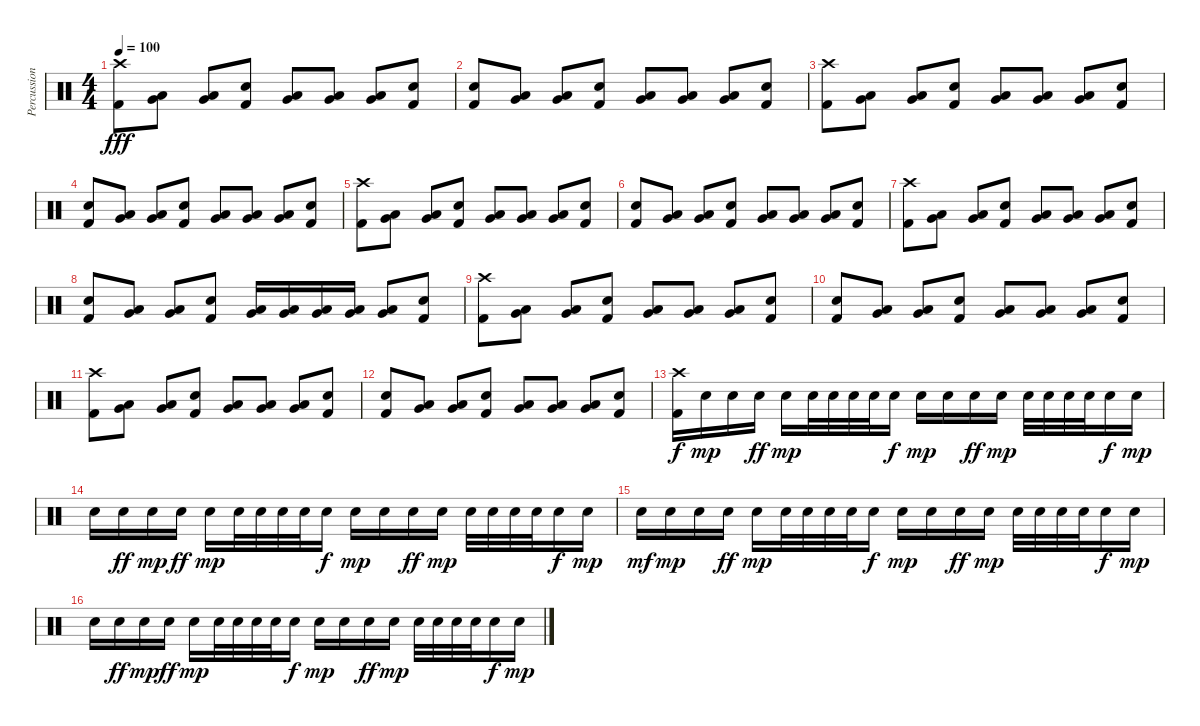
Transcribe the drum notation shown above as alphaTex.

\track ("Percussion" "Percussion") {instrument percussion}
\staff {score}
\articulation defaults
\ts (4 4)
\tempo 100
\clef neutral
\ks c
("Crash high (hit)" "Kick (hit) 2").8{dy fff} ("Very Low Tom (hit)" "Low Tom (hit)").8 ("Very Low Tom (hit)" "Low Tom (hit)").8 ("Kick (hit) 2" "Electric Snare (hit)").8 ("Very Low Tom (hit)" "Low Tom (hit)").8 ("Very Low Tom (hit)" "Low Tom (hit)").8 ("Very Low Tom (hit)" "Low Tom (hit)").8 ("Electric Snare (hit)" "Kick (hit) 2").8 |
("Electric Snare (hit)" "Kick (hit) 2").8 ("Very Low Tom (hit)" "Low Tom (hit)").8 ("Very Low Tom (hit)" "Low Tom (hit)").8 ("Kick (hit) 2" "Electric Snare (hit)").8 ("Very Low Tom (hit)" "Low Tom (hit)").8 ("Very Low Tom (hit)" "Low Tom (hit)").8 ("Very Low Tom (hit)" "Low Tom (hit)").8 ("Kick (hit) 2" "Electric Snare (hit)").8 |
("Crash high (hit)" "Kick (hit) 2").8 ("Very Low Tom (hit)" "Low Tom (hit)").8 ("Very Low Tom (hit)" "Low Tom (hit)").8 ("Kick (hit) 2" "Electric Snare (hit)").8 ("Very Low Tom (hit)" "Low Tom (hit)").8 ("Very Low Tom (hit)" "Low Tom (hit)").8 ("Very Low Tom (hit)" "Low Tom (hit)").8 ("Electric Snare (hit)" "Kick (hit) 2").8 |
("Electric Snare (hit)" "Kick (hit) 2").8 ("Very Low Tom (hit)" "Low Tom (hit)").8 ("Very Low Tom (hit)" "Low Tom (hit)").8 ("Kick (hit) 2" "Electric Snare (hit)").8 ("Very Low Tom (hit)" "Low Tom (hit)").8 ("Very Low Tom (hit)" "Low Tom (hit)").8 ("Very Low Tom (hit)" "Low Tom (hit)").8 ("Kick (hit) 2" "Electric Snare (hit)").8 |
("Crash high (hit)" "Kick (hit) 2").8 ("Very Low Tom (hit)" "Low Tom (hit)").8 ("Very Low Tom (hit)" "Low Tom (hit)").8 ("Kick (hit) 2" "Electric Snare (hit)").8 ("Very Low Tom (hit)" "Low Tom (hit)").8 ("Very Low Tom (hit)" "Low Tom (hit)").8 ("Very Low Tom (hit)" "Low Tom (hit)").8 ("Electric Snare (hit)" "Kick (hit) 2").8 |
("Electric Snare (hit)" "Kick (hit) 2").8 ("Very Low Tom (hit)" "Low Tom (hit)").8 ("Very Low Tom (hit)" "Low Tom (hit)").8 ("Kick (hit) 2" "Electric Snare (hit)").8 ("Very Low Tom (hit)" "Low Tom (hit)").8 ("Very Low Tom (hit)" "Low Tom (hit)").8 ("Very Low Tom (hit)" "Low Tom (hit)").8 ("Kick (hit) 2" "Electric Snare (hit)").8 |
("Crash high (hit)" "Kick (hit) 2").8 ("Very Low Tom (hit)" "Low Tom (hit)").8 ("Very Low Tom (hit)" "Low Tom (hit)").8 ("Kick (hit) 2" "Electric Snare (hit)").8 ("Very Low Tom (hit)" "Low Tom (hit)").8 ("Very Low Tom (hit)" "Low Tom (hit)").8 ("Very Low Tom (hit)" "Low Tom (hit)").8 ("Electric Snare (hit)" "Kick (hit) 2").8 |
("Electric Snare (hit)" "Kick (hit) 2").8 ("Very Low Tom (hit)" "Low Tom (hit)").8 ("Very Low Tom (hit)" "Low Tom (hit)").8 ("Kick (hit) 2" "Electric Snare (hit)").8 ("Very Low Tom (hit)" "Low Tom (hit)").16 ("Very Low Tom (hit)" "Low Tom (hit)").16 ("Very Low Tom (hit)" "Low Tom (hit)").16 ("Very Low Tom (hit)" "Low Tom (hit)").16 ("Very Low Tom (hit)" "Low Tom (hit)").8 ("Kick (hit) 2" "Electric Snare (hit)").8 |
("Crash high (hit)" "Kick (hit) 2").8 ("Very Low Tom (hit)" "Low Tom (hit)").8 ("Very Low Tom (hit)" "Low Tom (hit)").8 ("Kick (hit) 2" "Electric Snare (hit)").8 ("Very Low Tom (hit)" "Low Tom (hit)").8 ("Very Low Tom (hit)" "Low Tom (hit)").8 ("Very Low Tom (hit)" "Low Tom (hit)").8 ("Electric Snare (hit)" "Kick (hit) 2").8 |
("Electric Snare (hit)" "Kick (hit) 2").8 ("Very Low Tom (hit)" "Low Tom (hit)").8 ("Very Low Tom (hit)" "Low Tom (hit)").8 ("Kick (hit) 2" "Electric Snare (hit)").8 ("Very Low Tom (hit)" "Low Tom (hit)").8 ("Very Low Tom (hit)" "Low Tom (hit)").8 ("Very Low Tom (hit)" "Low Tom (hit)").8 ("Kick (hit) 2" "Electric Snare (hit)").8 |
("Crash high (hit)" "Kick (hit) 2").8 ("Very Low Tom (hit)" "Low Tom (hit)").8 ("Very Low Tom (hit)" "Low Tom (hit)").8 ("Kick (hit) 2" "Electric Snare (hit)").8 ("Very Low Tom (hit)" "Low Tom (hit)").8 ("Very Low Tom (hit)" "Low Tom (hit)").8 ("Very Low Tom (hit)" "Low Tom (hit)").8 ("Electric Snare (hit)" "Kick (hit) 2").8 |
("Electric Snare (hit)" "Kick (hit) 2").8 ("Very Low Tom (hit)" "Low Tom (hit)").8 ("Very Low Tom (hit)" "Low Tom (hit)").8 ("Kick (hit) 2" "Electric Snare (hit)").8 ("Very Low Tom (hit)" "Low Tom (hit)").8 ("Very Low Tom (hit)" "Low Tom (hit)").8 ("Very Low Tom (hit)" "Low Tom (hit)").8 ("Kick (hit) 2" "Electric Snare (hit)").8 |
("Crash high (hit)" "Kick (hit) 2").16{dy f} "Electric Snare (hit)".16{dy mp} "Electric Snare (hit)".16 "Electric Snare (hit)".16{dy ff} "Electric Snare (hit)".16{dy mp} "Electric Snare (hit)".32 "Electric Snare (hit)".32 "Electric Snare (hit)".32 "Electric Snare (hit)".32 "Electric Snare (hit)".16{dy f} "Electric Snare (hit)".16{dy mp} "Electric Snare (hit)".16 "Electric Snare (hit)".16{dy ff} "Electric Snare (hit)".16{dy mp} "Electric Snare (hit)".32 "Electric Snare (hit)".32 "Electric Snare (hit)".32 "Electric Snare (hit)".32 "Electric Snare (hit)".16{dy f} "Electric Snare (hit)".16{dy mp} |
"Electric Snare (hit)".16 "Electric Snare (hit)".16{dy ff} "Electric Snare (hit)".16{dy mp} "Electric Snare (hit)".16{dy ff} "Electric Snare (hit)".16{dy mp} "Electric Snare (hit)".32 "Electric Snare (hit)".32 "Electric Snare (hit)".32 "Electric Snare (hit)".32 "Electric Snare (hit)".16{dy f} "Electric Snare (hit)".16{dy mp} "Electric Snare (hit)".16 "Electric Snare (hit)".16{dy ff} "Electric Snare (hit)".16{dy mp} "Electric Snare (hit)".32 "Electric Snare (hit)".32 "Electric Snare (hit)".32 "Electric Snare (hit)".32 "Electric Snare (hit)".16{dy f} "Electric Snare (hit)".16{dy mp} |
"Electric Snare (hit)".16{dy mf} "Electric Snare (hit)".16{dy mp} "Electric Snare (hit)".16 "Electric Snare (hit)".16{dy ff} "Electric Snare (hit)".16{dy mp} "Electric Snare (hit)".32 "Electric Snare (hit)".32 "Electric Snare (hit)".32 "Electric Snare (hit)".32 "Electric Snare (hit)".16{dy f} "Electric Snare (hit)".16{dy mp} "Electric Snare (hit)".16 "Electric Snare (hit)".16{dy ff} "Electric Snare (hit)".16{dy mp} "Electric Snare (hit)".32 "Electric Snare (hit)".32 "Electric Snare (hit)".32 "Electric Snare (hit)".32 "Electric Snare (hit)".16{dy f} "Electric Snare (hit)".16{dy mp} |
"Electric Snare (hit)".16 "Electric Snare (hit)".16{dy ff} "Electric Snare (hit)".16{dy mp} "Electric Snare (hit)".16{dy ff} "Electric Snare (hit)".16{dy mp} "Electric Snare (hit)".32 "Electric Snare (hit)".32 "Electric Snare (hit)".32 "Electric Snare (hit)".32 "Electric Snare (hit)".16{dy f} "Electric Snare (hit)".16{dy mp} "Electric Snare (hit)".16 "Electric Snare (hit)".16{dy ff} "Electric Snare (hit)".16{dy mp} "Electric Snare (hit)".32 "Electric Snare (hit)".32 "Electric Snare (hit)".32 "Electric Snare (hit)".32 "Electric Snare (hit)".16{dy f} "Electric Snare (hit)".16{dy mp}
